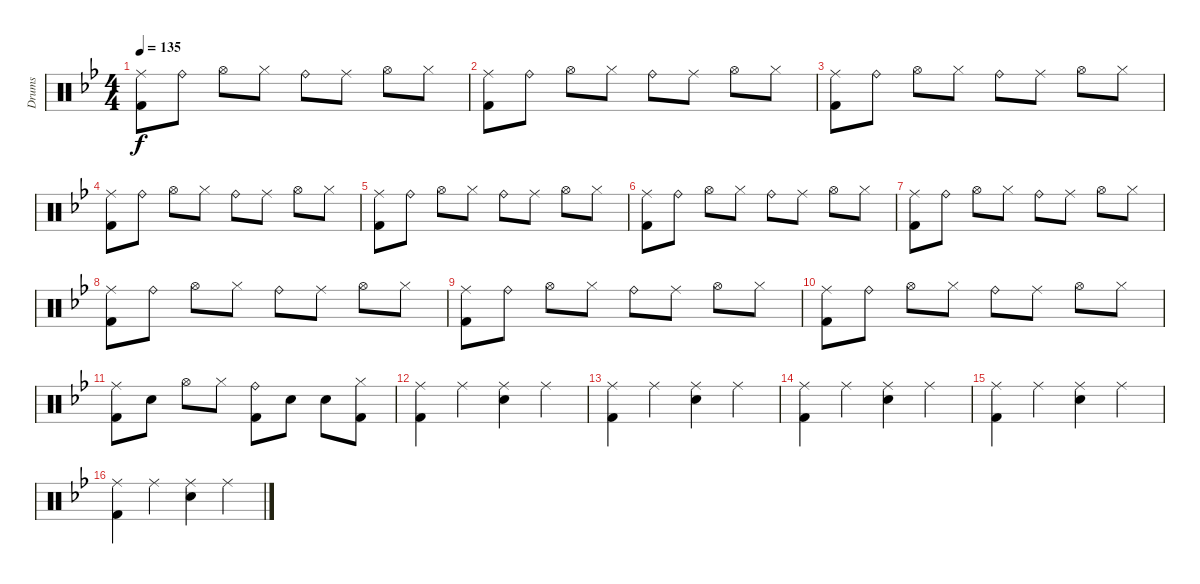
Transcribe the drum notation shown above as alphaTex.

\track ("Drums" "Drums") {instrument percussion}
\staff {score}
\articulation defaults
\ts (4 4)
\tempo 135
\clef neutral
\ks bb
("Ride (middle)" "Kick (hit) 2").8{dy f} "Ride (bell)".8 "Hi-Hat (open)".8 "Hi-Hat (closed)".8 "Ride (bell)".8 "Ride (middle)".8 "Hi-Hat (open)".8 "Hi-Hat (closed)".8 |
("Ride (middle)" "Kick (hit) 2").8 "Ride (bell)".8 "Hi-Hat (open)".8 "Hi-Hat (closed)".8 "Ride (bell)".8 "Ride (middle)".8 "Hi-Hat (open)".8 "Hi-Hat (closed)".8 |
("Ride (middle)" "Kick (hit) 2").8 "Ride (bell)".8 "Hi-Hat (open)".8 "Hi-Hat (closed)".8 "Ride (bell)".8 "Ride (middle)".8 "Hi-Hat (open)".8 "Hi-Hat (closed)".8 |
("Ride (middle)" "Kick (hit) 2").8 "Ride (bell)".8 "Hi-Hat (open)".8 "Hi-Hat (closed)".8 "Ride (bell)".8 "Ride (middle)".8 "Hi-Hat (open)".8 "Hi-Hat (closed)".8 |
("Ride (middle)" "Kick (hit) 2").8 "Ride (bell)".8 "Hi-Hat (open)".8 "Hi-Hat (closed)".8 "Ride (bell)".8 "Ride (middle)".8 "Hi-Hat (open)".8 "Hi-Hat (closed)".8 |
("Ride (middle)" "Kick (hit) 2").8 "Ride (bell)".8 "Hi-Hat (open)".8 "Hi-Hat (closed)".8 "Ride (bell)".8 "Ride (middle)".8 "Hi-Hat (open)".8 "Hi-Hat (closed)".8 |
("Ride (middle)" "Kick (hit) 2").8 "Ride (bell)".8 "Hi-Hat (open)".8 "Hi-Hat (closed)".8 "Ride (bell)".8 "Ride (middle)".8 "Hi-Hat (open)".8 "Hi-Hat (closed)".8 |
("Ride (middle)" "Kick (hit) 2").8 "Ride (bell)".8 "Hi-Hat (open)".8 "Hi-Hat (closed)".8 "Ride (bell)".8 "Ride (middle)".8 "Hi-Hat (open)".8 "Hi-Hat (closed)".8 |
("Ride (middle)" "Kick (hit) 2").8 "Ride (bell)".8 "Hi-Hat (open)".8 "Hi-Hat (closed)".8 "Ride (bell)".8 "Ride (middle)".8 "Hi-Hat (open)".8 "Hi-Hat (closed)".8 |
("Ride (middle)" "Kick (hit) 2").8 "Ride (bell)".8 "Hi-Hat (open)".8 "Hi-Hat (closed)".8 "Ride (bell)".8 "Ride (middle)".8 "Hi-Hat (open)".8 "Hi-Hat (closed)".8 |
("Ride (middle)" "Kick (hit) 2").8 "Snare (hit) 2".8 "Hi-Hat (open)".8 "Hi-Hat (closed)".8 ("Ride (bell)" "Kick (hit) 2").8 "Snare (hit) 2".8 "Snare (hit) 2".8 ("Hi-Hat (closed)" "Kick (hit) 2").8 |
("Ride (middle)" "Kick (hit) 2").4 "Ride (middle)".4 ("Ride (middle)" "Snare (hit) 2").4 "Ride (middle)".4 |
("Ride (middle)" "Kick (hit) 2").4 "Ride (middle)".4 ("Ride (middle)" "Snare (hit) 2").4 "Ride (middle)".4 |
("Ride (middle)" "Kick (hit) 2").4 "Ride (middle)".4 ("Ride (middle)" "Snare (hit) 2").4 "Ride (middle)".4 |
("Ride (middle)" "Kick (hit) 2").4 "Ride (middle)".4 ("Ride (middle)" "Snare (hit) 2").4 "Ride (middle)".4 |
("Ride (middle)" "Kick (hit) 2").4 "Ride (middle)".4 ("Ride (middle)" "Snare (hit) 2").4 "Ride (middle)".4
